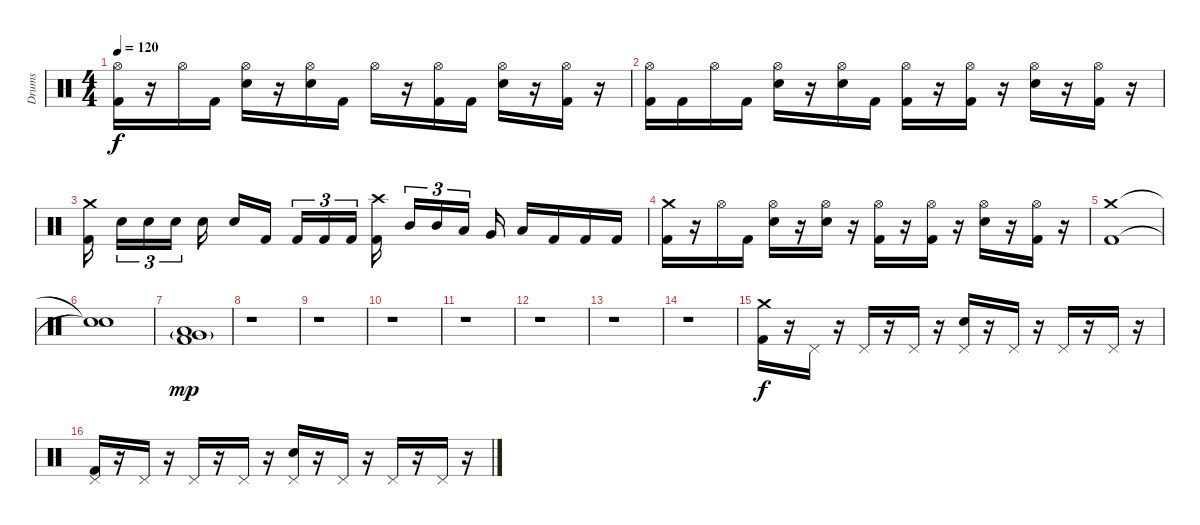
\track ("Drums" "Drums") {instrument percussion}
\staff {score}
\articulation defaults
\ts (4 4)
\tempo 120
\clef neutral
\ks c
("Hi-Hat (open)" "Kick (hit) 2").16{dy f} r.16 "Hi-Hat (open)".16 "Kick (hit) 2".16 ("Hi-Hat (open)" "Electric Snare (hit)").16 r.16 ("Hi-Hat (open)" "Electric Snare (hit)").16 "Kick (hit) 2".16 "Hi-Hat (open)".16 r.16 ("Hi-Hat (open)" "Kick (hit) 2").16 "Kick (hit) 2".16 ("Hi-Hat (open)" "Electric Snare (hit)").16 r.16 ("Hi-Hat (open)" "Kick (hit) 2").16 r.16 |
("Hi-Hat (open)" "Kick (hit) 2").16 "Kick (hit) 2".16 "Hi-Hat (open)".16 "Kick (hit) 2".16 ("Hi-Hat (open)" "Electric Snare (hit)").16 r.16 ("Hi-Hat (open)" "Electric Snare (hit)").16 "Kick (hit) 2".16 ("Hi-Hat (open)" "Kick (hit) 2").16 r.16 ("Hi-Hat (open)" "Kick (hit) 2").16 r.16 ("Hi-Hat (open)" "Electric Snare (hit)").16 r.16 ("Hi-Hat (open)" "Kick (hit) 2").16 r.16 |
("Crash medium (hit)" "Kick (hit) 2").16 "Electric Snare (hit)".16{tu (3 2)} "Electric Snare (hit)".16{tu (3 2)} "Electric Snare (hit)".16{tu (3 2)} "Electric Snare (hit)".16 "Electric Snare (hit)".16 "Kick (hit) 2".16 "Kick (hit) 2".16{tu (3 2)} "Kick (hit) 2".16{tu (3 2)} "Kick (hit) 2".16{tu (3 2)} ("Crash high (hit)" "Kick (hit) 2").16 "Mid Tom (hit)".16{tu (3 2)} "Mid Tom (hit)".16{tu (3 2)} "Low Tom (hit)".16{tu (3 2)} "Very Low Tom (hit)".16 "Low Floor Tom (hit)".16 "Kick (hit) 2".16 "Kick (hit) 2".16 "Kick (hit) 2".16 |
("Crash medium (hit)" "Kick (hit) 2").16 r.16 "Hi-Hat (open)".16 "Kick (hit) 2".16 ("Hi-Hat (open)" "Electric Snare (hit)").16 r.16 ("Hi-Hat (open)" "Electric Snare (hit)").16 r.16 ("Hi-Hat (open)" "Kick (hit) 2").16 r.16 ("Hi-Hat (open)" "Kick (hit) 2").16 r.16 ("Hi-Hat (open)" "Electric Snare (hit)").16 r.16 ("Hi-Hat (open)" "Kick (hit) 2").16 r.16 |
\section ("" "")
("Crash medium (hit)" "Kick (hit) 2").1 |
("Snare (hit)"{t} "Snare (hit)"{t}).1 |
("Very Low Tom (hit)"{g} "Low Floor Tom (hit)" "Kick (hit) 2").1{dy mp} |
r.1 |
r.1 |
r.1 |
r.1 |
r.1 |
r.1 |
r.1 |
\section ("" "")
("Crash medium (hit)" "Kick (hit) 2").16{dy f} r.16 "Pedal Hi-Hat (hit)".16 r.16 "Pedal Hi-Hat (hit)".16 r.16 "Pedal Hi-Hat (hit)".16 r.16 ("Pedal Hi-Hat (hit)" "Electric Snare (hit)").16 r.16 "Pedal Hi-Hat (hit)".16 r.16 "Pedal Hi-Hat (hit)".16 r.16 "Pedal Hi-Hat (hit)".16 r.16 |
("Pedal Hi-Hat (hit)" "Kick (hit) 2").16 r.16 "Pedal Hi-Hat (hit)".16 r.16 "Pedal Hi-Hat (hit)".16 r.16 "Pedal Hi-Hat (hit)".16 r.16 ("Pedal Hi-Hat (hit)" "Electric Snare (hit)").16 r.16 "Pedal Hi-Hat (hit)".16 r.16 "Pedal Hi-Hat (hit)".16 r.16 "Pedal Hi-Hat (hit)".16 r.16
